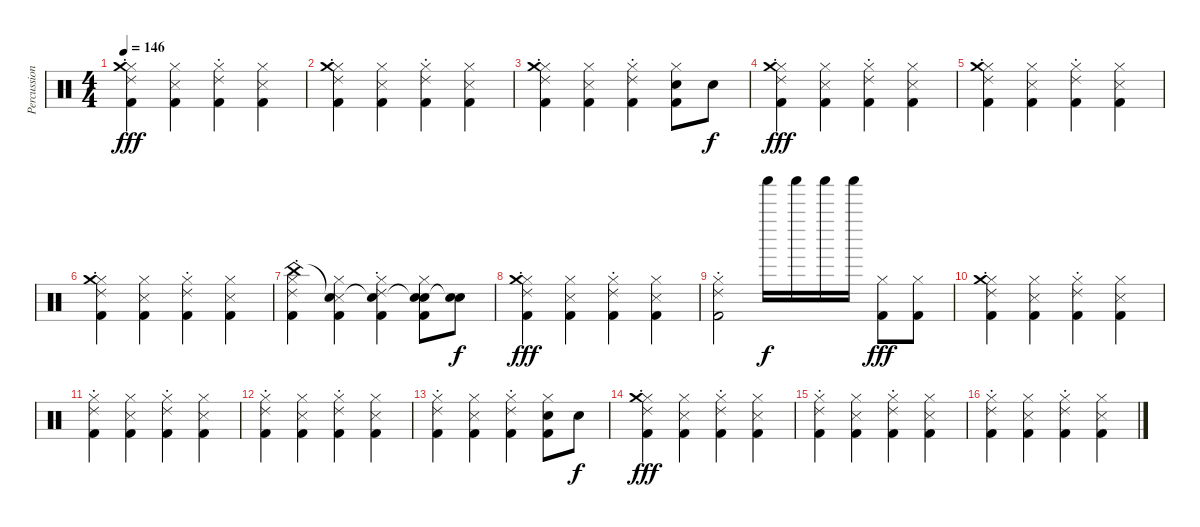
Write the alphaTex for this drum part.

\track ("Percussion" "Percussion") {instrument percussion}
\staff {score}
\articulation defaults
\ts (4 4)
\tempo 146
\clef neutral
\ks c
("Hi-Hat (closed)" "Ride (choke) 2" "Crash medium (hit)" "Kick (hit) 2").4{dy fff} ("Hi-Hat (closed)" "Metronome (hit)" "Kick (hit) 2").4 ("Hi-Hat (closed)" "Ride (choke) 2" "Kick (hit) 2").4 ("Hi-Hat (closed)" "Metronome (hit)" "Kick (hit) 2").4 |
("Hi-Hat (closed)" "Ride (choke) 2" "Crash medium (hit)" "Kick (hit) 2").4 ("Hi-Hat (closed)" "Metronome (hit)" "Kick (hit) 2").4 ("Hi-Hat (closed)" "Ride (choke) 2" "Kick (hit) 2").4 ("Hi-Hat (closed)" "Metronome (hit)" "Kick (hit) 2").4 |
("Hi-Hat (closed)" "Ride (choke) 2" "Crash medium (hit)" "Kick (hit) 2").4 ("Hi-Hat (closed)" "Metronome (hit)" "Kick (hit) 2").4 ("Hi-Hat (closed)" "Ride (choke) 2" "Kick (hit) 2").4 ("Hi-Hat (closed)" "Hand Clap (hit)" "Kick (hit) 2").8 "Hand Clap (hit)".8{dy f} |
("Hi-Hat (closed)" "Ride (choke) 2" "Crash medium (hit)" "Kick (hit) 2").4{dy fff} ("Hi-Hat (closed)" "Metronome (hit)" "Kick (hit) 2").4 ("Hi-Hat (closed)" "Ride (choke) 2" "Kick (hit) 2").4 ("Hi-Hat (closed)" "Metronome (hit)" "Kick (hit) 2").4 |
("Hi-Hat (closed)" "Ride (choke) 2" "Crash medium (hit)" "Kick (hit) 2").4 ("Hi-Hat (closed)" "Metronome (hit)" "Kick (hit) 2").4 ("Hi-Hat (closed)" "Ride (choke) 2" "Kick (hit) 2").4 ("Hi-Hat (closed)" "Metronome (hit)" "Kick (hit) 2").4 |
("Hi-Hat (closed)" "Ride (choke) 2" "Crash medium (hit)" "Kick (hit) 2").4 ("Hi-Hat (closed)" "Metronome (hit)" "Kick (hit) 2").4 ("Hi-Hat (closed)" "Ride (choke) 2" "Kick (hit) 2").4 ("Hi-Hat (closed)" "Metronome (hit)" "Kick (hit) 2").4 |
("Hi-Hat (closed)" "Ride (choke) 2" "China (hit)" "Kick (hit) 2").4 ("Hi-Hat (closed)" "Metronome (hit)" "Snare (hit)"{t} "Kick (hit) 2").4 ("Hi-Hat (closed)" "Ride (choke) 2" "Snare (hit)"{t} "Kick (hit) 2").4 ("Hi-Hat (closed)" "Hand Clap (hit)" "Snare (hit)"{t} "Kick (hit) 2").8 ("Hand Clap (hit)" "Snare (hit)"{t}).8{dy f} |
("Hi-Hat (closed)" "Ride (choke) 2" "Crash medium (hit)" "Kick (hit) 2").4{dy fff} ("Hi-Hat (closed)" "Metronome (hit)" "Kick (hit) 2").4 ("Hi-Hat (closed)" "Ride (choke) 2" "Kick (hit) 2").4 ("Hi-Hat (closed)" "Metronome (hit)" "Kick (hit) 2").4 |
("Hi-Hat (closed)" "Ride (choke) 2" "Kick (hit) 2").2 "Shaker (hit)".16{dy f} "Shaker (hit)".16 "Shaker (hit)".16 "Shaker (hit)".16 ("Hi-Hat (closed)" "Kick (hit) 2").8{dy fff} ("Hi-Hat (closed)" "Kick (hit) 2").8 |
("Hi-Hat (closed)" "Ride (choke) 2" "Crash medium (hit)" "Kick (hit) 2").4 ("Hi-Hat (closed)" "Metronome (hit)" "Kick (hit) 2").4 ("Hi-Hat (closed)" "Ride (choke) 2" "Kick (hit) 2").4 ("Hi-Hat (closed)" "Metronome (hit)" "Kick (hit) 2").4 |
("Hi-Hat (closed)" "Ride (choke) 2" "Kick (hit) 2").4 ("Hi-Hat (closed)" "Metronome (hit)" "Kick (hit) 2").4 ("Hi-Hat (closed)" "Ride (choke) 2" "Kick (hit) 2").4 ("Hi-Hat (closed)" "Metronome (hit)" "Kick (hit) 2").4 |
("Hi-Hat (closed)" "Ride (choke) 2" "Kick (hit) 2").4 ("Hi-Hat (closed)" "Metronome (hit)" "Kick (hit) 2").4 ("Hi-Hat (closed)" "Ride (choke) 2" "Kick (hit) 2").4 ("Hi-Hat (closed)" "Metronome (hit)" "Kick (hit) 2").4 |
("Hi-Hat (closed)" "Ride (choke) 2" "Kick (hit) 2").4 ("Hi-Hat (closed)" "Metronome (hit)" "Kick (hit) 2").4 ("Hi-Hat (closed)" "Ride (choke) 2" "Kick (hit) 2").4 ("Hi-Hat (closed)" "Hand Clap (hit)" "Kick (hit) 2").8 "Hand Clap (hit)".8{dy f} |
("Hi-Hat (closed)" "Ride (choke) 2" "Crash medium (hit)" "Kick (hit) 2").4{dy fff} ("Hi-Hat (closed)" "Metronome (hit)" "Kick (hit) 2").4 ("Hi-Hat (closed)" "Ride (choke) 2" "Kick (hit) 2").4 ("Hi-Hat (closed)" "Metronome (hit)" "Kick (hit) 2").4 |
("Hi-Hat (closed)" "Ride (choke) 2" "Kick (hit) 2").4 ("Hi-Hat (closed)" "Metronome (hit)" "Kick (hit) 2").4 ("Hi-Hat (closed)" "Ride (choke) 2" "Kick (hit) 2").4 ("Hi-Hat (closed)" "Metronome (hit)" "Kick (hit) 2").4 |
("Hi-Hat (closed)" "Ride (choke) 2" "Kick (hit) 2").4 ("Hi-Hat (closed)" "Metronome (hit)" "Kick (hit) 2").4 ("Hi-Hat (closed)" "Ride (choke) 2" "Kick (hit) 2").4 ("Hi-Hat (closed)" "Metronome (hit)" "Kick (hit) 2").4
